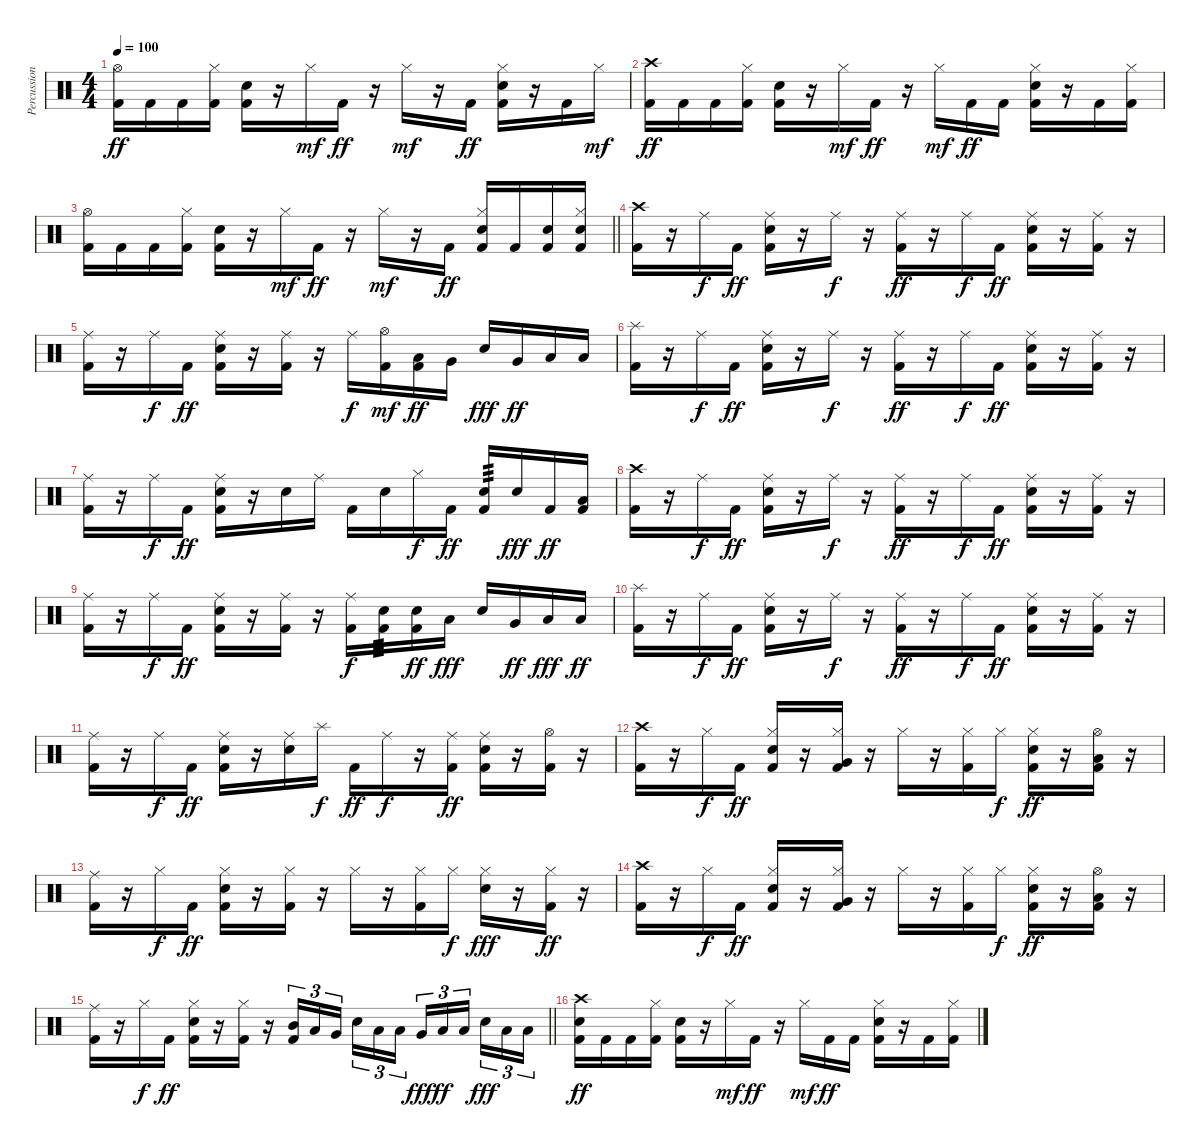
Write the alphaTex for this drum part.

\track ("Percussion" "Percussion") {instrument percussion}
\staff {score}
\articulation defaults
\ts (4 4)
\tempo 100
\clef neutral
\ks c
("Hi-Hat (open)" "Kick (hit) 2").16{dy ff} "Kick (hit) 2".16 "Kick (hit) 2".16 ("Hi-Hat (closed)" "Kick (hit) 2").16 ("Snare (hit) 2" "Kick (hit) 2").16 r.16 "Hi-Hat (closed)".16{dy mf} "Kick (hit) 2".16{dy ff} r.16 "Hi-Hat (closed)".16{dy mf} r.16 "Kick (hit) 2".16{dy ff} ("Hi-Hat (closed)" "Snare (hit) 2" "Kick (hit) 2").16 r.16 "Kick (hit) 2".16 "Hi-Hat (closed)".16{dy mf} |
("Crash high (hit)" "Kick (hit) 2").16{dy ff} "Kick (hit) 2".16 "Kick (hit) 2".16 ("Hi-Hat (closed)" "Kick (hit) 2").16 ("Snare (hit) 2" "Kick (hit) 2").16 r.16 "Hi-Hat (closed)".16{dy mf} "Kick (hit) 2".16{dy ff} r.16 "Hi-Hat (closed)".16{dy mf} "Kick (hit) 2".16{dy ff} "Kick (hit) 2".16 ("Hi-Hat (closed)" "Snare (hit) 2" "Kick (hit) 2").16 r.16 "Kick (hit) 2".16 ("Hi-Hat (closed)" "Kick (hit) 2").16 |
\barLineRight lightlight
("Hi-Hat (open)" "Kick (hit) 2").16 "Kick (hit) 2".16 "Kick (hit) 2".16 ("Hi-Hat (closed)" "Kick (hit) 2").16 ("Snare (hit) 2" "Kick (hit) 2").16 r.16 "Hi-Hat (closed)".16{dy mf} "Kick (hit) 2".16{dy ff} r.16 "Hi-Hat (closed)".16{dy mf} r.16 "Kick (hit) 2".16{dy ff} ("Hi-Hat (closed)" "Snare (hit) 2" "Kick (hit) 2").16 "Kick (hit) 2".16 ("Snare (hit) 2" "Kick (hit) 2").16 ("Hi-Hat (closed)" "Snare (hit) 2" "Kick (hit) 2").16 |
("Crash high (hit)" "Kick (hit) 2").16 r.16 "Ride (middle)".16{dy f} "Kick (hit) 2".16{dy ff} ("Ride (middle)" "Snare (hit) 2" "Kick (hit) 2").16 r.16 "Ride (middle)".16{dy f} r.16 ("Ride (middle)" "Kick (hit) 2").16{dy ff} r.16 "Ride (middle)".16{dy f} "Kick (hit) 2".16{dy ff} ("Ride (middle)" "Snare (hit) 2" "Kick (hit) 2").16 r.16 ("Ride (middle)" "Kick (hit) 2").16 r.16 |
("Ride (middle)" "Kick (hit) 2").16 r.16 "Ride (middle)".16{dy f} "Kick (hit) 2".16{dy ff} ("Ride (middle)" "Snare (hit) 2" "Kick (hit) 2").16 r.16 ("Ride (middle)" "Kick (hit) 2").16 r.16 "Ride (middle)".16{dy f} ("Hi-Hat (open)" "Kick (hit) 2").16{dy mf} ("Low Floor Tom (hit)" "Kick (hit) 2").16{dy ff} "Very Low Tom (hit)".16 "Snare (hit) 2".16{dy fff} "Very Low Tom (hit)".16{dy ff} "Low Floor Tom (hit)".16 "Low Floor Tom (hit)".16 |
("Splash (hit)" "Kick (hit) 2").16 r.16 "Ride (middle)".16{dy f} "Kick (hit) 2".16{dy ff} ("Ride (middle)" "Snare (hit) 2" "Kick (hit) 2").16 r.16 "Ride (middle)".16{dy f} r.16 ("Ride (middle)" "Kick (hit) 2").16{dy ff} r.16 "Ride (middle)".16{dy f} "Kick (hit) 2".16{dy ff} ("Ride (middle)" "Snare (hit) 2" "Kick (hit) 2").16 r.16 ("Ride (middle)" "Kick (hit) 2").16 r.16 |
("Ride (middle)" "Kick (hit) 2").16 r.16 "Ride (middle)".16{dy f} "Kick (hit) 2".16{dy ff} ("Ride (middle)" "Snare (hit) 2" "Kick (hit) 2").16 r.16 "Snare (hit) 2".16 "Ride (middle)".16 "Kick (hit) 2".16 "Snare (hit) 2".16 "Hi-Hat (closed)".16{dy f} "Kick (hit) 2".16{dy ff} ("Snare (hit) 2" "Kick (hit) 2").16{tp 3} "Snare (hit) 2".16{dy fff} "Kick (hit) 2".16{dy ff} ("Low Floor Tom (hit)" "Kick (hit) 2").16 |
("Crash high (hit)" "Kick (hit) 2").16 r.16 "Ride (middle)".16{dy f} "Kick (hit) 2".16{dy ff} ("Ride (middle)" "Snare (hit) 2" "Kick (hit) 2").16 r.16 "Ride (middle)".16{dy f} r.16 ("Ride (middle)" "Kick (hit) 2").16{dy ff} r.16 "Ride (middle)".16{dy f} "Kick (hit) 2".16{dy ff} ("Ride (middle)" "Snare (hit) 2" "Kick (hit) 2").16 r.16 ("Ride (middle)" "Kick (hit) 2").16 r.16 |
("Ride (middle)" "Kick (hit) 2").16 r.16 "Ride (middle)".16{dy f} "Kick (hit) 2".16{dy ff} ("Ride (middle)" "Snare (hit) 2" "Kick (hit) 2").16 r.16 ("Ride (middle)" "Kick (hit) 2").16 r.16 ("Ride (middle)" "Kick (hit) 2").16{dy f} ("Snare (hit) 2" "Kick (hit) 2").16{tp 3} ("Snare (hit) 2" "Kick (hit) 2").16{dy ff} "Low Floor Tom (hit)".16{dy fff} "Snare (hit) 2".16 "Very Low Tom (hit)".16{dy ff} "Low Floor Tom (hit)".16{dy fff} "Low Floor Tom (hit)".16{dy ff} |
("Splash (hit)" "Kick (hit) 2").16 r.16 "Ride (middle)".16{dy f} "Kick (hit) 2".16{dy ff} ("Ride (middle)" "Snare (hit) 2" "Kick (hit) 2").16 r.16 "Ride (middle)".16{dy f} r.16 ("Ride (middle)" "Kick (hit) 2").16{dy ff} r.16 "Ride (middle)".16{dy f} "Kick (hit) 2".16{dy ff} ("Ride (middle)" "Snare (hit) 2" "Kick (hit) 2").16 r.16 ("Ride (middle)" "Kick (hit) 2").16 r.16 |
("Ride (middle)" "Kick (hit) 2").16 r.16 "Ride (middle)".16{dy f} "Kick (hit) 2".16{dy ff} ("Ride (middle)" "Snare (hit) 2" "Kick (hit) 2").16 r.16 ("Ride (middle)" "Snare (hit) 2").16 "Splash (hit)".16{dy f} "Kick (hit) 2".16{dy ff} "Ride (middle)".16{dy f} r.16 ("Ride (middle)" "Kick (hit) 2").16{dy ff} ("Ride (middle)" "Snare (hit) 2" "Kick (hit) 2").16 r.16 ("Hi-Hat (open)" "Kick (hit) 2").16 r.16 |
("Crash high (hit)" "Kick (hit) 2").16 r.16 "Hi-Hat (closed)".16{dy f} "Kick (hit) 2".16{dy ff} ("Hi-Hat (closed)" "Snare (hit) 2" "Kick (hit) 2").16 r.16 ("Hi-Hat (closed)" "Very Low Tom (hit)" "Kick (hit) 2").16 r.16 "Hi-Hat (closed)".16 r.16 ("Hi-Hat (closed)" "Kick (hit) 2").16 "Hi-Hat (closed)".16{dy f} ("Hi-Hat (closed)" "Snare (hit) 2" "Kick (hit) 2").16{dy ff} r.16 ("Hi-Hat (open)" "Low Floor Tom (hit)" "Kick (hit) 2").16 r.16 |
("Ride (middle)" "Kick (hit) 2").16 r.16 "Hi-Hat (closed)".16{dy f} "Kick (hit) 2".16{dy ff} ("Hi-Hat (closed)" "Snare (hit) 2" "Kick (hit) 2").16 r.16 ("Hi-Hat (closed)" "Kick (hit) 2").16 r.16 "Hi-Hat (closed)".16 r.16 ("Hi-Hat (closed)" "Kick (hit) 2").16 "Hi-Hat (closed)".16{dy f} ("Hi-Hat (closed)" "Snare (hit) 2").16{dy fff} r.16 ("Hi-Hat (closed)" "Kick (hit) 2").16{dy ff} r.16 |
("Crash high (hit)" "Kick (hit) 2").16 r.16 "Hi-Hat (closed)".16{dy f} "Kick (hit) 2".16{dy ff} ("Hi-Hat (closed)" "Snare (hit) 2" "Kick (hit) 2").16 r.16 ("Hi-Hat (closed)" "Very Low Tom (hit)" "Kick (hit) 2").16 r.16 "Hi-Hat (closed)".16 r.16 ("Hi-Hat (closed)" "Kick (hit) 2").16 "Hi-Hat (closed)".16{dy f} ("Hi-Hat (closed)" "Snare (hit) 2" "Kick (hit) 2").16{dy ff} r.16 ("Hi-Hat (open)" "Low Floor Tom (hit)" "Kick (hit) 2").16 r.16 |
\barLineRight lightlight
("Ride (middle)" "Kick (hit) 2").16 r.16 "Hi-Hat (closed)".16{dy f} "Kick (hit) 2".16{dy ff} ("Hi-Hat (closed)" "Snare (hit) 2" "Kick (hit) 2").16 r.16 ("Hi-Hat (closed)" "Kick (hit) 2").16 r.16 ("Mid Tom (hit)" "Kick (hit) 2").16{tu (3 2)} "Low Tom (hit)".16{tu (3 2)} "Very Low Tom (hit)".16{tu (3 2) beam splitsecondary} "Snare (hit) 2".16{tu (3 2)} "Low Tom (hit)".16{tu (3 2)} "Low Tom (hit)".16{tu (3 2)} "Very Low Tom (hit)".16{tu (3 2) dy fff} "Low Floor Tom (hit)".16{tu (3 2) dy ff} "Low Floor Tom (hit)".16{tu (3 2) beam splitsecondary} "Snare (hit) 2".16{tu (3 2) dy fff} "Low Floor Tom (hit)".16{tu (3 2)} "Low Floor Tom (hit)".16{tu (3 2)} |
("Crash high (hit)" "Snare (hit) 2" "Kick (hit) 2").16{dy ff} "Kick (hit) 2".16 "Kick (hit) 2".16 ("Hi-Hat (closed)" "Kick (hit) 2").16 ("Snare (hit) 2" "Kick (hit) 2").16 r.16 "Hi-Hat (closed)".16{dy mf} "Kick (hit) 2".16{dy ff} r.16 "Hi-Hat (closed)".16{dy mf} "Kick (hit) 2".16{dy ff} "Kick (hit) 2".16 ("Hi-Hat (closed)" "Snare (hit) 2" "Kick (hit) 2").16 r.16 "Kick (hit) 2".16 ("Hi-Hat (closed)" "Kick (hit) 2").16
